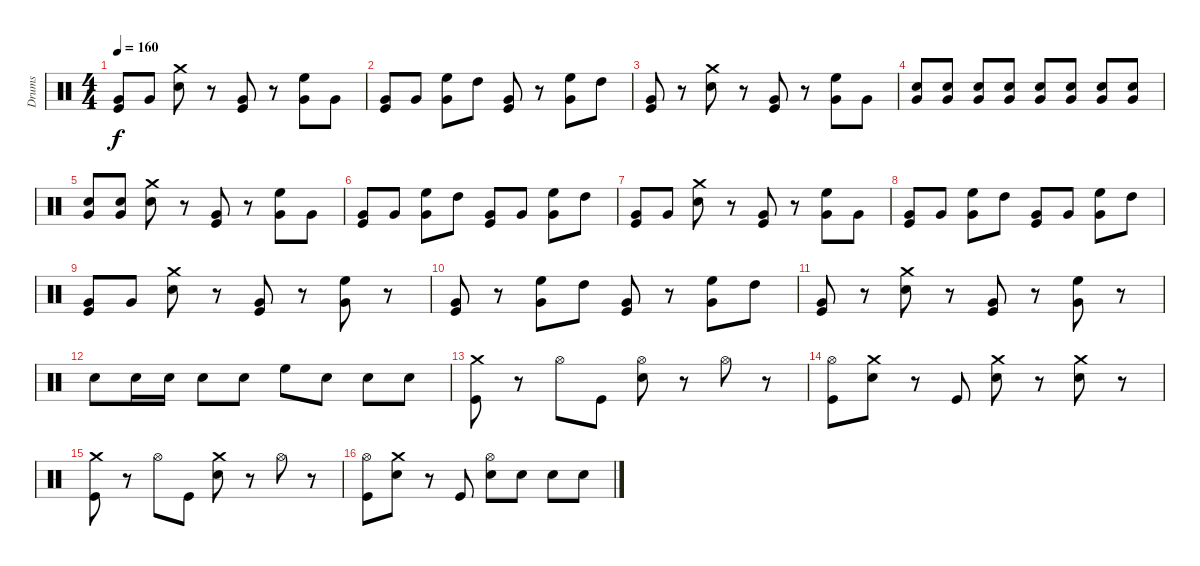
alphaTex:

\track ("Drums" "Drums") {instrument percussion}
\staff {score}
\articulation defaults
\ts (4 4)
\tempo 160
\clef neutral
\ks c
("Very Low Tom (hit)" "Kick (hit)").8{dy f} "Very Low Tom (hit)".8 ("Crash medium (hit)" "Snare (hit) 2").8 r.8 ("Very Low Tom (hit)" "Kick (hit)").8 r.8 ("High Floor Tom (hit)" "Very Low Tom (hit)").8 "Very Low Tom (hit)".8 |
("Kick (hit)" "Very Low Tom (hit)").8 "Very Low Tom (hit)".8 ("High Floor Tom (hit)" "Very Low Tom (hit)").8 "High Tom (hit)".8 ("Kick (hit)" "Very Low Tom (hit)").8 r.8 ("High Floor Tom (hit)" "Very Low Tom (hit)").8 "High Tom (hit)".8 |
("Kick (hit)" "Very Low Tom (hit)").8 r.8 ("Crash medium (hit)" "Snare (hit) 2").8 r.8 ("Kick (hit)" "Very Low Tom (hit)").8 r.8 ("High Floor Tom (hit)" "Very Low Tom (hit)").8 "Very Low Tom (hit)".8 |
("Snare (hit) 2" "Very Low Tom (hit)").8 ("Snare (hit) 2" "Very Low Tom (hit)").8 ("Snare (hit) 2" "Very Low Tom (hit)").8 ("Snare (hit) 2" "Very Low Tom (hit)").8 ("Snare (hit) 2" "Very Low Tom (hit)").8 ("Snare (hit) 2" "Very Low Tom (hit)").8 ("Snare (hit) 2" "Very Low Tom (hit)").8 ("Snare (hit) 2" "Very Low Tom (hit)").8 |
("Very Low Tom (hit)" "Snare (hit) 2").8 ("Snare (hit) 2" "Very Low Tom (hit)").8 ("Crash medium (hit)" "Snare (hit) 2").8 r.8 ("Kick (hit)" "Very Low Tom (hit)").8 r.8 ("High Floor Tom (hit)" "Very Low Tom (hit)").8 "Very Low Tom (hit)".8 |
("Kick (hit)" "Very Low Tom (hit)").8 "Very Low Tom (hit)".8 ("High Floor Tom (hit)" "Very Low Tom (hit)").8 "High Tom (hit)".8 ("Very Low Tom (hit)" "Kick (hit)").8 "Very Low Tom (hit)".8 ("High Floor Tom (hit)" "Very Low Tom (hit)").8 "High Tom (hit)".8 |
("Kick (hit)" "Very Low Tom (hit)").8 "Very Low Tom (hit)".8 ("Crash medium (hit)" "Snare (hit) 2").8 r.8 ("Kick (hit)" "Very Low Tom (hit)").8 r.8 ("High Floor Tom (hit)" "Very Low Tom (hit)").8 "Very Low Tom (hit)".8 |
("Kick (hit)" "Very Low Tom (hit)").8 "Very Low Tom (hit)".8 ("High Floor Tom (hit)" "Very Low Tom (hit)").8 "High Tom (hit)".8 ("Very Low Tom (hit)" "Kick (hit)").8 "Very Low Tom (hit)".8 ("High Floor Tom (hit)" "Very Low Tom (hit)").8 "High Tom (hit)".8 |
("Kick (hit)" "Very Low Tom (hit)").8 "Very Low Tom (hit)".8 ("Crash medium (hit)" "Snare (hit) 2").8 r.8 ("Kick (hit)" "Very Low Tom (hit)").8 r.8 ("Very Low Tom (hit)" "High Floor Tom (hit)").8 r.8 |
("Kick (hit)" "Very Low Tom (hit)").8 r.8 ("High Floor Tom (hit)" "Very Low Tom (hit)").8 "High Tom (hit)".8 ("Very Low Tom (hit)" "Kick (hit)").8 r.8 ("High Floor Tom (hit)" "Very Low Tom (hit)").8 "High Tom (hit)".8 |
("Very Low Tom (hit)" "Kick (hit)").8 r.8 ("Crash medium (hit)" "Snare (hit) 2").8 r.8 ("Kick (hit)" "Very Low Tom (hit)").8 r.8 ("High Floor Tom (hit)" "Very Low Tom (hit)").8 r.8 |
"Snare (hit) 2".8 "Snare (hit) 2".16 "Snare (hit) 2".16 "Snare (hit) 2".8 "Snare (hit) 2".8 "High Floor Tom (hit)".8 "Snare (hit) 2".8 "Snare (hit) 2".8 "Snare (hit) 2".8 |
("Kick (hit)" "Crash medium (hit)").8 r.8 "Hi-Hat (open)".8 "Kick (hit)".8 ("Hi-Hat (open)" "Snare (hit) 2").8 r.8 "Hi-Hat (open)".8 r.8 |
("Hi-Hat (open)" "Kick (hit)").8 ("Crash medium (hit)" "Snare (hit) 2").8 r.8 "Kick (hit)".8 ("Crash medium (hit)" "Snare (hit) 2").8 r.8 ("Crash medium (hit)" "Snare (hit) 2").8 r.8 |
("Kick (hit)" "Crash medium (hit)").8 r.8 "Hi-Hat (open)".8 "Kick (hit)".8 ("Crash medium (hit)" "Snare (hit) 2").8 r.8 "Hi-Hat (open)".8 r.8 |
("Hi-Hat (open)" "Kick (hit)").8 ("Crash medium (hit)" "Snare (hit) 2").8 r.8 "Kick (hit)".8 ("Hi-Hat (open)" "Snare (hit) 2").8 "Snare (hit) 2".8 "Snare (hit) 2".8 "Snare (hit) 2".8
